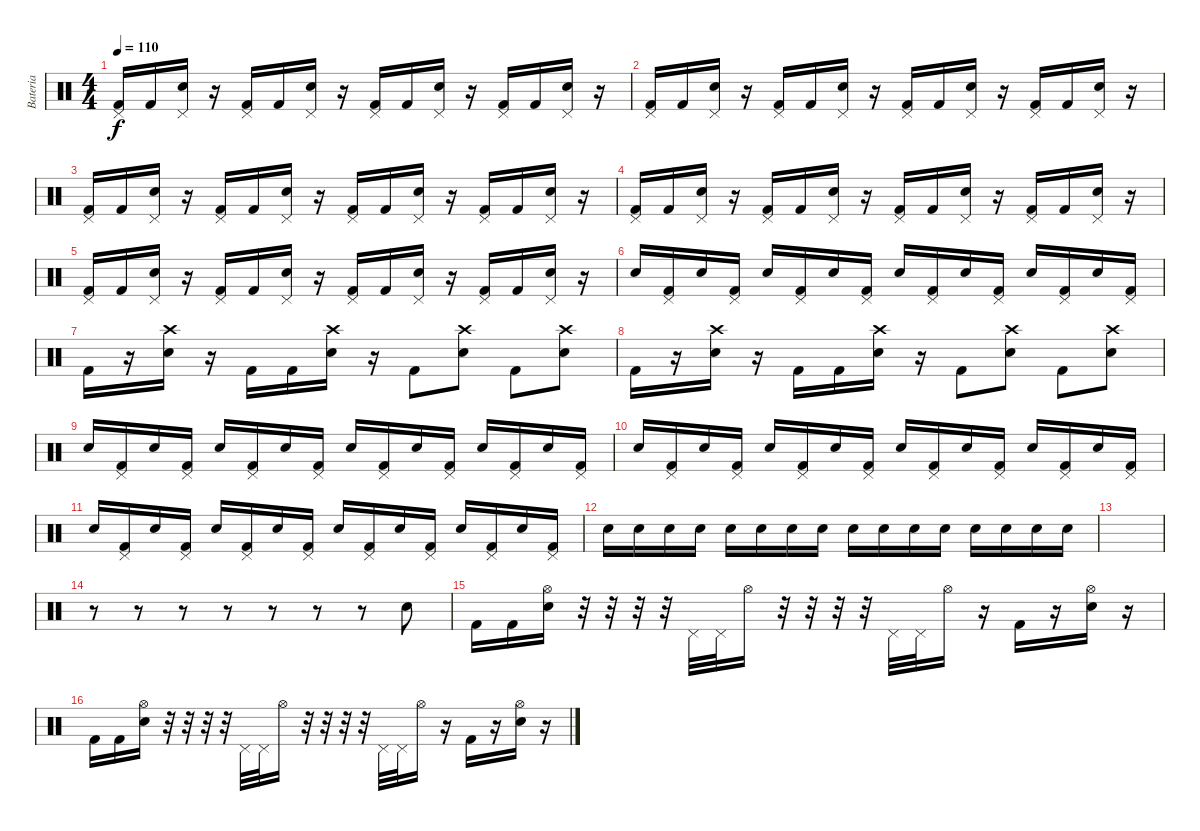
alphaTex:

\track ("Bateria" "Bateria") {instrument percussion}
\staff {score}
\articulation defaults
\ts (4 4)
\tempo 110
\clef neutral
\ks c
("Pedal Hi-Hat (hit)" "Kick (hit) 2").16{dy f} "Kick (hit) 2".16 ("Pedal Hi-Hat (hit)" "Electric Snare (hit)").16 r.16 ("Pedal Hi-Hat (hit)" "Kick (hit) 2").16 "Kick (hit) 2".16 ("Pedal Hi-Hat (hit)" "Electric Snare (hit)").16 r.16 ("Pedal Hi-Hat (hit)" "Kick (hit) 2").16 "Kick (hit) 2".16 ("Pedal Hi-Hat (hit)" "Electric Snare (hit)").16 r.16 ("Pedal Hi-Hat (hit)" "Kick (hit) 2").16 "Kick (hit) 2".16 ("Pedal Hi-Hat (hit)" "Electric Snare (hit)").16 r.16 |
("Pedal Hi-Hat (hit)" "Kick (hit) 2").16 "Kick (hit) 2".16 ("Pedal Hi-Hat (hit)" "Electric Snare (hit)").16 r.16 ("Pedal Hi-Hat (hit)" "Kick (hit) 2").16 "Kick (hit) 2".16 ("Pedal Hi-Hat (hit)" "Electric Snare (hit)").16 r.16 ("Pedal Hi-Hat (hit)" "Kick (hit) 2").16 "Kick (hit) 2".16 ("Pedal Hi-Hat (hit)" "Electric Snare (hit)").16 r.16 ("Pedal Hi-Hat (hit)" "Kick (hit) 2").16 "Kick (hit) 2".16 ("Pedal Hi-Hat (hit)" "Electric Snare (hit)").16 r.16 |
("Pedal Hi-Hat (hit)" "Kick (hit) 2").16 "Kick (hit) 2".16 ("Pedal Hi-Hat (hit)" "Electric Snare (hit)").16 r.16 ("Pedal Hi-Hat (hit)" "Kick (hit) 2").16 "Kick (hit) 2".16 ("Pedal Hi-Hat (hit)" "Electric Snare (hit)").16 r.16 ("Pedal Hi-Hat (hit)" "Kick (hit) 2").16 "Kick (hit) 2".16 ("Pedal Hi-Hat (hit)" "Electric Snare (hit)").16 r.16 ("Pedal Hi-Hat (hit)" "Kick (hit) 2").16 "Kick (hit) 2".16 ("Pedal Hi-Hat (hit)" "Electric Snare (hit)").16 r.16 |
("Pedal Hi-Hat (hit)" "Kick (hit) 2").16 "Kick (hit) 2".16 ("Pedal Hi-Hat (hit)" "Electric Snare (hit)").16 r.16 ("Pedal Hi-Hat (hit)" "Kick (hit) 2").16 "Kick (hit) 2".16 ("Pedal Hi-Hat (hit)" "Electric Snare (hit)").16 r.16 ("Pedal Hi-Hat (hit)" "Kick (hit) 2").16 "Kick (hit) 2".16 ("Pedal Hi-Hat (hit)" "Electric Snare (hit)").16 r.16 ("Pedal Hi-Hat (hit)" "Kick (hit) 2").16 "Kick (hit) 2".16 ("Pedal Hi-Hat (hit)" "Electric Snare (hit)").16 r.16 |
("Pedal Hi-Hat (hit)" "Kick (hit) 2").16 "Kick (hit) 2".16 ("Pedal Hi-Hat (hit)" "Electric Snare (hit)").16 r.16 ("Pedal Hi-Hat (hit)" "Kick (hit) 2").16 "Kick (hit) 2".16 ("Pedal Hi-Hat (hit)" "Electric Snare (hit)").16 r.16 ("Pedal Hi-Hat (hit)" "Kick (hit) 2").16 "Kick (hit) 2".16 ("Pedal Hi-Hat (hit)" "Electric Snare (hit)").16 r.16 ("Pedal Hi-Hat (hit)" "Kick (hit) 2").16 "Kick (hit) 2".16 ("Pedal Hi-Hat (hit)" "Electric Snare (hit)").16 r.16 |
"Electric Snare (hit)".16 ("Pedal Hi-Hat (hit)" "Kick (hit) 2").16 "Electric Snare (hit)".16 ("Pedal Hi-Hat (hit)" "Kick (hit) 2").16 "Electric Snare (hit)".16 ("Pedal Hi-Hat (hit)" "Kick (hit) 2").16 "Electric Snare (hit)".16 ("Pedal Hi-Hat (hit)" "Kick (hit) 2").16 "Electric Snare (hit)".16 ("Pedal Hi-Hat (hit)" "Kick (hit) 2").16 "Electric Snare (hit)".16 ("Pedal Hi-Hat (hit)" "Kick (hit) 2").16 "Electric Snare (hit)".16 ("Pedal Hi-Hat (hit)" "Kick (hit) 2").16 "Electric Snare (hit)".16 ("Pedal Hi-Hat (hit)" "Kick (hit) 2").16 |
"Kick (hit) 2".16 r.16 ("Crash high (hit)" "Electric Snare (hit)").16 r.16 "Kick (hit) 2".16 "Kick (hit) 2".16 ("Crash high (hit)" "Electric Snare (hit)").16 r.16 "Kick (hit) 2".8 ("Crash high (hit)" "Electric Snare (hit)").8 "Kick (hit) 2".8 ("Crash high (hit)" "Electric Snare (hit)").8 |
"Kick (hit) 2".16 r.16 ("Crash high (hit)" "Electric Snare (hit)").16 r.16 "Kick (hit) 2".16 "Kick (hit) 2".16 ("Crash high (hit)" "Electric Snare (hit)").16 r.16 "Kick (hit) 2".8 ("Crash high (hit)" "Electric Snare (hit)").8 "Kick (hit) 2".8 ("Crash high (hit)" "Electric Snare (hit)").8 |
"Electric Snare (hit)".16 ("Pedal Hi-Hat (hit)" "Kick (hit) 2").16 "Electric Snare (hit)".16 ("Pedal Hi-Hat (hit)" "Kick (hit) 2").16 "Electric Snare (hit)".16 ("Pedal Hi-Hat (hit)" "Kick (hit) 2").16 "Electric Snare (hit)".16 ("Pedal Hi-Hat (hit)" "Kick (hit) 2").16 "Electric Snare (hit)".16 ("Pedal Hi-Hat (hit)" "Kick (hit) 2").16 "Electric Snare (hit)".16 ("Pedal Hi-Hat (hit)" "Kick (hit) 2").16 "Electric Snare (hit)".16 ("Pedal Hi-Hat (hit)" "Kick (hit) 2").16 "Electric Snare (hit)".16 ("Pedal Hi-Hat (hit)" "Kick (hit) 2").16 |
"Electric Snare (hit)".16 ("Pedal Hi-Hat (hit)" "Kick (hit) 2").16 "Electric Snare (hit)".16 ("Pedal Hi-Hat (hit)" "Kick (hit) 2").16 "Electric Snare (hit)".16 ("Pedal Hi-Hat (hit)" "Kick (hit) 2").16 "Electric Snare (hit)".16 ("Pedal Hi-Hat (hit)" "Kick (hit) 2").16 "Electric Snare (hit)".16 ("Pedal Hi-Hat (hit)" "Kick (hit) 2").16 "Electric Snare (hit)".16 ("Pedal Hi-Hat (hit)" "Kick (hit) 2").16 "Electric Snare (hit)".16 ("Pedal Hi-Hat (hit)" "Kick (hit) 2").16 "Electric Snare (hit)".16 ("Pedal Hi-Hat (hit)" "Kick (hit) 2").16 |
"Electric Snare (hit)".16 ("Pedal Hi-Hat (hit)" "Kick (hit) 2").16 "Electric Snare (hit)".16 ("Pedal Hi-Hat (hit)" "Kick (hit) 2").16 "Electric Snare (hit)".16 ("Pedal Hi-Hat (hit)" "Kick (hit) 2").16 "Electric Snare (hit)".16 ("Pedal Hi-Hat (hit)" "Kick (hit) 2").16 "Electric Snare (hit)".16 ("Pedal Hi-Hat (hit)" "Kick (hit) 2").16 "Electric Snare (hit)".16 ("Pedal Hi-Hat (hit)" "Kick (hit) 2").16 "Electric Snare (hit)".16 ("Pedal Hi-Hat (hit)" "Kick (hit) 2").16 "Electric Snare (hit)".16 ("Pedal Hi-Hat (hit)" "Kick (hit) 2").16 |
"Electric Snare (hit)".16 "Electric Snare (hit)".16 "Electric Snare (hit)".16 "Electric Snare (hit)".16 "Electric Snare (hit)".16 "Electric Snare (hit)".16 "Electric Snare (hit)".16 "Electric Snare (hit)".16 "Electric Snare (hit)".16 "Electric Snare (hit)".16 "Electric Snare (hit)".16 "Electric Snare (hit)".16 "Electric Snare (hit)".16 "Electric Snare (hit)".16 "Electric Snare (hit)".16 "Electric Snare (hit)".16 |
|
r.8 r.8 r.8 r.8 r.8 r.8 r.8 "Electric Snare (hit)".8 |
"Kick (hit) 2".16 "Kick (hit) 2".16 ("Hi-Hat (open)" "Electric Snare (hit)").16 r.32 r.32 r.32 r.32 "Pedal Hi-Hat (hit)".32 "Pedal Hi-Hat (hit)".32 "Hi-Hat (open)".16 r.32 r.32 r.32 r.32 "Pedal Hi-Hat (hit)".32 "Pedal Hi-Hat (hit)".32 "Hi-Hat (open)".16 r.16 "Kick (hit) 2".16 r.16 ("Hi-Hat (open)" "Electric Snare (hit)").16 r.16 |
"Kick (hit) 2".16 "Kick (hit) 2".16 ("Hi-Hat (open)" "Electric Snare (hit)").16 r.32 r.32 r.32 r.32 "Pedal Hi-Hat (hit)".32 "Pedal Hi-Hat (hit)".32 "Hi-Hat (open)".16 r.32 r.32 r.32 r.32 "Pedal Hi-Hat (hit)".32 "Pedal Hi-Hat (hit)".32 "Hi-Hat (open)".16 r.16 "Kick (hit) 2".16 r.16 ("Hi-Hat (open)" "Electric Snare (hit)").16 r.16
